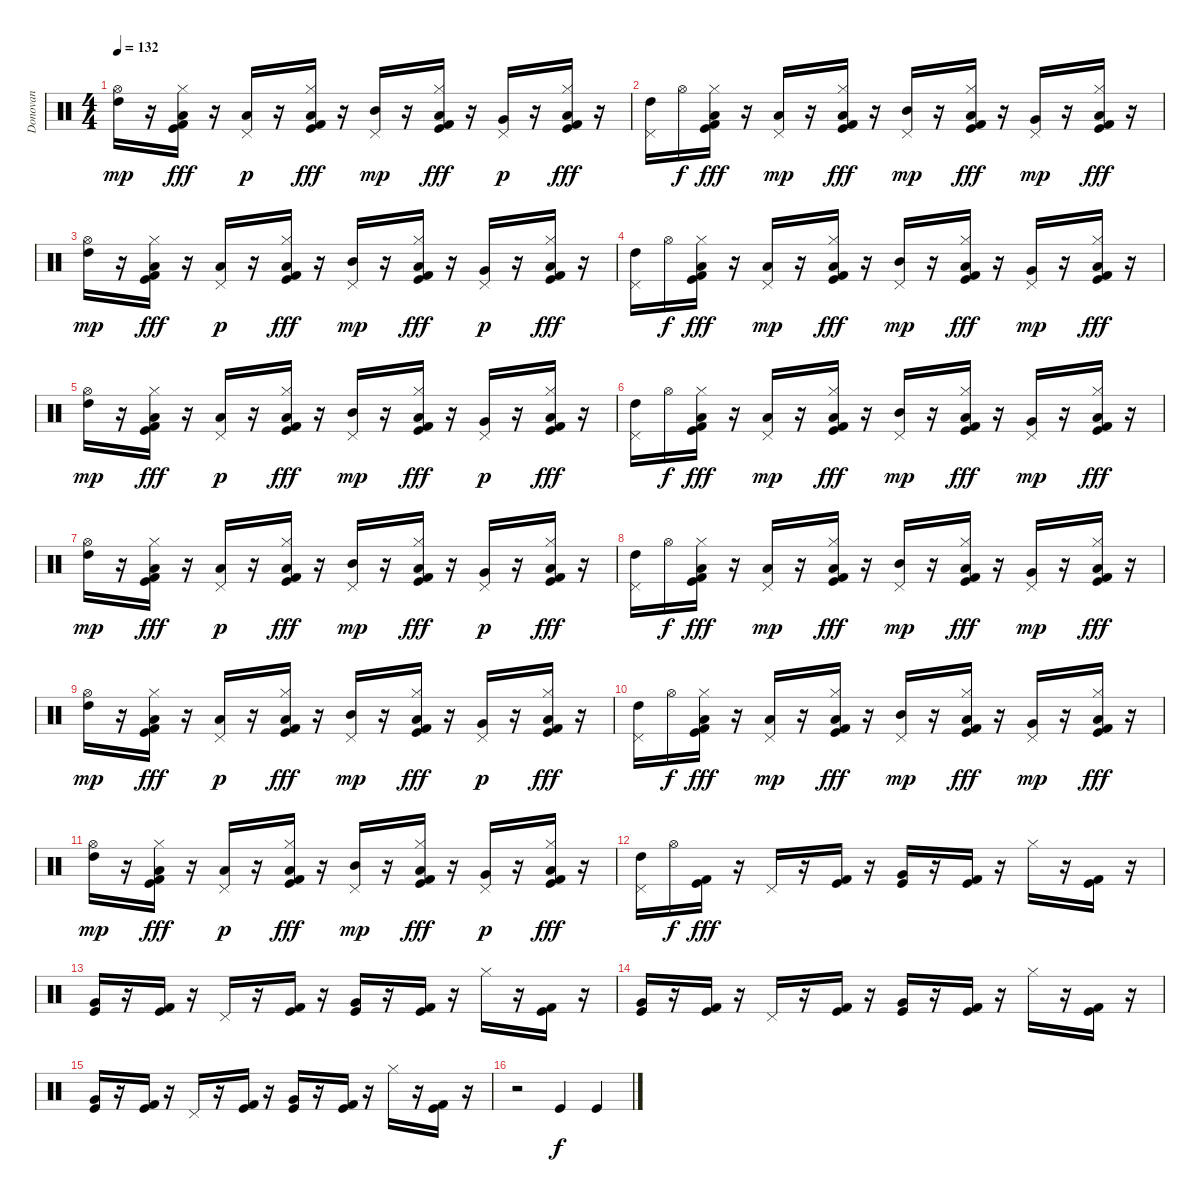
\track ("Donovan" "Donovan") {instrument percussion}
\staff {score}
\articulation defaults
\ts (4 4)
\tempo 132
\clef neutral
\ks c
("High Tom (hit)" "Hi-Hat (open)").16{dy mp} r.16 ("Low Floor Tom (hit)" "Hi-Hat (closed)" "Kick (hit) 2" "Kick (hit)").16{dy fff} r.16 ("Low Tom (hit)" "Pedal Hi-Hat (hit)").16{dy p} r.16 ("Low Floor Tom (hit)" "Hi-Hat (closed)" "Kick (hit) 2" "Kick (hit)").16{dy fff} r.16 ("Mid Tom (hit)" "Pedal Hi-Hat (hit)").16{dy mp} r.16 ("Low Floor Tom (hit)" "Hi-Hat (closed)" "Kick (hit) 2" "Kick (hit)").16{dy fff} r.16 ("Very Low Tom (hit)" "Pedal Hi-Hat (hit)").16{dy p} r.16 ("Low Floor Tom (hit)" "Hi-Hat (closed)" "Kick (hit) 2" "Kick (hit)").16{dy fff} r.16 |
("High Tom (hit)" "Pedal Hi-Hat (hit)").16 "Hi-Hat (open)".16{dy f} ("Low Floor Tom (hit)" "Hi-Hat (closed)" "Kick (hit)" "Kick (hit) 2").16{dy fff} r.16 ("Low Tom (hit)" "Pedal Hi-Hat (hit)").16{dy mp} r.16 ("Low Floor Tom (hit)" "Hi-Hat (closed)" "Kick (hit)" "Kick (hit) 2").16{dy fff} r.16 ("Mid Tom (hit)" "Pedal Hi-Hat (hit)").16{dy mp} r.16 ("Low Floor Tom (hit)" "Hi-Hat (closed)" "Kick (hit)" "Kick (hit) 2").16{dy fff} r.16 ("Very Low Tom (hit)" "Pedal Hi-Hat (hit)").16{dy mp} r.16 ("Low Floor Tom (hit)" "Hi-Hat (closed)" "Kick (hit)" "Kick (hit) 2").16{dy fff} r.16 |
("High Tom (hit)" "Hi-Hat (open)").16{dy mp} r.16 ("Low Floor Tom (hit)" "Hi-Hat (closed)" "Kick (hit) 2" "Kick (hit)").16{dy fff} r.16 ("Low Tom (hit)" "Pedal Hi-Hat (hit)").16{dy p} r.16 ("Low Floor Tom (hit)" "Hi-Hat (closed)" "Kick (hit) 2" "Kick (hit)").16{dy fff} r.16 ("Mid Tom (hit)" "Pedal Hi-Hat (hit)").16{dy mp} r.16 ("Low Floor Tom (hit)" "Hi-Hat (closed)" "Kick (hit) 2" "Kick (hit)").16{dy fff} r.16 ("Very Low Tom (hit)" "Pedal Hi-Hat (hit)").16{dy p} r.16 ("Low Floor Tom (hit)" "Hi-Hat (closed)" "Kick (hit) 2" "Kick (hit)").16{dy fff} r.16 |
("High Tom (hit)" "Pedal Hi-Hat (hit)").16 "Hi-Hat (open)".16{dy f} ("Low Floor Tom (hit)" "Hi-Hat (closed)" "Kick (hit)" "Kick (hit) 2").16{dy fff} r.16 ("Low Tom (hit)" "Pedal Hi-Hat (hit)").16{dy mp} r.16 ("Low Floor Tom (hit)" "Hi-Hat (closed)" "Kick (hit)" "Kick (hit) 2").16{dy fff} r.16 ("Mid Tom (hit)" "Pedal Hi-Hat (hit)").16{dy mp} r.16 ("Low Floor Tom (hit)" "Hi-Hat (closed)" "Kick (hit)" "Kick (hit) 2").16{dy fff} r.16 ("Very Low Tom (hit)" "Pedal Hi-Hat (hit)").16{dy mp} r.16 ("Low Floor Tom (hit)" "Hi-Hat (closed)" "Kick (hit)" "Kick (hit) 2").16{dy fff} r.16 |
("High Tom (hit)" "Hi-Hat (open)").16{dy mp} r.16 ("Low Floor Tom (hit)" "Hi-Hat (closed)" "Kick (hit) 2" "Kick (hit)").16{dy fff} r.16 ("Low Tom (hit)" "Pedal Hi-Hat (hit)").16{dy p} r.16 ("Low Floor Tom (hit)" "Hi-Hat (closed)" "Kick (hit) 2" "Kick (hit)").16{dy fff} r.16 ("Mid Tom (hit)" "Pedal Hi-Hat (hit)").16{dy mp} r.16 ("Low Floor Tom (hit)" "Hi-Hat (closed)" "Kick (hit) 2" "Kick (hit)").16{dy fff} r.16 ("Very Low Tom (hit)" "Pedal Hi-Hat (hit)").16{dy p} r.16 ("Low Floor Tom (hit)" "Hi-Hat (closed)" "Kick (hit) 2" "Kick (hit)").16{dy fff} r.16 |
("High Tom (hit)" "Pedal Hi-Hat (hit)").16 "Hi-Hat (open)".16{dy f} ("Low Floor Tom (hit)" "Hi-Hat (closed)" "Kick (hit)" "Kick (hit) 2").16{dy fff} r.16 ("Low Tom (hit)" "Pedal Hi-Hat (hit)").16{dy mp} r.16 ("Low Floor Tom (hit)" "Hi-Hat (closed)" "Kick (hit)" "Kick (hit) 2").16{dy fff} r.16 ("Mid Tom (hit)" "Pedal Hi-Hat (hit)").16{dy mp} r.16 ("Low Floor Tom (hit)" "Hi-Hat (closed)" "Kick (hit)" "Kick (hit) 2").16{dy fff} r.16 ("Very Low Tom (hit)" "Pedal Hi-Hat (hit)").16{dy mp} r.16 ("Low Floor Tom (hit)" "Hi-Hat (closed)" "Kick (hit)" "Kick (hit) 2").16{dy fff} r.16 |
("High Tom (hit)" "Hi-Hat (open)").16{dy mp} r.16 ("Low Floor Tom (hit)" "Hi-Hat (closed)" "Kick (hit) 2" "Kick (hit)").16{dy fff} r.16 ("Low Tom (hit)" "Pedal Hi-Hat (hit)").16{dy p} r.16 ("Low Floor Tom (hit)" "Hi-Hat (closed)" "Kick (hit) 2" "Kick (hit)").16{dy fff} r.16 ("Mid Tom (hit)" "Pedal Hi-Hat (hit)").16{dy mp} r.16 ("Low Floor Tom (hit)" "Hi-Hat (closed)" "Kick (hit) 2" "Kick (hit)").16{dy fff} r.16 ("Very Low Tom (hit)" "Pedal Hi-Hat (hit)").16{dy p} r.16 ("Low Floor Tom (hit)" "Hi-Hat (closed)" "Kick (hit) 2" "Kick (hit)").16{dy fff} r.16 |
("High Tom (hit)" "Pedal Hi-Hat (hit)").16 "Hi-Hat (open)".16{dy f} ("Low Floor Tom (hit)" "Hi-Hat (closed)" "Kick (hit)" "Kick (hit) 2").16{dy fff} r.16 ("Low Tom (hit)" "Pedal Hi-Hat (hit)").16{dy mp} r.16 ("Low Floor Tom (hit)" "Hi-Hat (closed)" "Kick (hit)" "Kick (hit) 2").16{dy fff} r.16 ("Mid Tom (hit)" "Pedal Hi-Hat (hit)").16{dy mp} r.16 ("Low Floor Tom (hit)" "Hi-Hat (closed)" "Kick (hit)" "Kick (hit) 2").16{dy fff} r.16 ("Very Low Tom (hit)" "Pedal Hi-Hat (hit)").16{dy mp} r.16 ("Low Floor Tom (hit)" "Hi-Hat (closed)" "Kick (hit)" "Kick (hit) 2").16{dy fff} r.16 |
("High Tom (hit)" "Hi-Hat (open)").16{dy mp} r.16 ("Low Floor Tom (hit)" "Hi-Hat (closed)" "Kick (hit) 2" "Kick (hit)").16{dy fff} r.16 ("Low Tom (hit)" "Pedal Hi-Hat (hit)").16{dy p} r.16 ("Low Floor Tom (hit)" "Hi-Hat (closed)" "Kick (hit) 2" "Kick (hit)").16{dy fff} r.16 ("Mid Tom (hit)" "Pedal Hi-Hat (hit)").16{dy mp} r.16 ("Low Floor Tom (hit)" "Hi-Hat (closed)" "Kick (hit) 2" "Kick (hit)").16{dy fff} r.16 ("Very Low Tom (hit)" "Pedal Hi-Hat (hit)").16{dy p} r.16 ("Low Floor Tom (hit)" "Hi-Hat (closed)" "Kick (hit) 2" "Kick (hit)").16{dy fff} r.16 |
("High Tom (hit)" "Pedal Hi-Hat (hit)").16 "Hi-Hat (open)".16{dy f} ("Low Floor Tom (hit)" "Hi-Hat (closed)" "Kick (hit)" "Kick (hit) 2").16{dy fff} r.16 ("Low Tom (hit)" "Pedal Hi-Hat (hit)").16{dy mp} r.16 ("Low Floor Tom (hit)" "Hi-Hat (closed)" "Kick (hit)" "Kick (hit) 2").16{dy fff} r.16 ("Mid Tom (hit)" "Pedal Hi-Hat (hit)").16{dy mp} r.16 ("Low Floor Tom (hit)" "Hi-Hat (closed)" "Kick (hit)" "Kick (hit) 2").16{dy fff} r.16 ("Very Low Tom (hit)" "Pedal Hi-Hat (hit)").16{dy mp} r.16 ("Low Floor Tom (hit)" "Hi-Hat (closed)" "Kick (hit)" "Kick (hit) 2").16{dy fff} r.16 |
("High Tom (hit)" "Hi-Hat (open)").16{dy mp} r.16 ("Low Floor Tom (hit)" "Hi-Hat (closed)" "Kick (hit) 2" "Kick (hit)").16{dy fff} r.16 ("Low Tom (hit)" "Pedal Hi-Hat (hit)").16{dy p} r.16 ("Low Floor Tom (hit)" "Hi-Hat (closed)" "Kick (hit) 2" "Kick (hit)").16{dy fff} r.16 ("Mid Tom (hit)" "Pedal Hi-Hat (hit)").16{dy mp} r.16 ("Low Floor Tom (hit)" "Hi-Hat (closed)" "Kick (hit) 2" "Kick (hit)").16{dy fff} r.16 ("Very Low Tom (hit)" "Pedal Hi-Hat (hit)").16{dy p} r.16 ("Low Floor Tom (hit)" "Hi-Hat (closed)" "Kick (hit) 2" "Kick (hit)").16{dy fff} r.16 |
("High Tom (hit)" "Pedal Hi-Hat (hit)").16 "Hi-Hat (open)".16{dy f} ("Kick (hit)" "Kick (hit) 2").16{dy fff} r.16 "Pedal Hi-Hat (hit)".16 r.16 ("Kick (hit)" "Kick (hit) 2").16 r.16 ("Very Low Tom (hit)" "Kick (hit)").16 r.16 ("Kick (hit)" "Kick (hit) 2").16 r.16 "Hi-Hat (closed)".16 r.16 ("Kick (hit)" "Kick (hit) 2").16 r.16 |
("Very Low Tom (hit)" "Kick (hit)").16 r.16 ("Kick (hit) 2" "Kick (hit)").16 r.16 "Pedal Hi-Hat (hit)".16 r.16 ("Kick (hit) 2" "Kick (hit)").16 r.16 ("Kick (hit)" "Very Low Tom (hit)").16 r.16 ("Kick (hit) 2" "Kick (hit)").16 r.16 "Hi-Hat (closed)".16 r.16 ("Kick (hit) 2" "Kick (hit)").16 r.16 |
("Kick (hit)" "Very Low Tom (hit)").16 r.16 ("Kick (hit)" "Kick (hit) 2").16 r.16 "Pedal Hi-Hat (hit)".16 r.16 ("Kick (hit)" "Kick (hit) 2").16 r.16 ("Very Low Tom (hit)" "Kick (hit)").16 r.16 ("Kick (hit)" "Kick (hit) 2").16 r.16 "Hi-Hat (closed)".16 r.16 ("Kick (hit)" "Kick (hit) 2").16 r.16 |
("Very Low Tom (hit)" "Kick (hit)").16 r.16 ("Kick (hit) 2" "Kick (hit)").16 r.16 "Pedal Hi-Hat (hit)".16 r.16 ("Kick (hit) 2" "Kick (hit)").16 r.16 ("Kick (hit)" "Very Low Tom (hit)").16 r.16 ("Kick (hit) 2" "Kick (hit)").16 r.16 "Hi-Hat (closed)".16 r.16 ("Kick (hit) 2" "Kick (hit)").16 r.16 |
r.2 "Kick (hit)".4{dy f} "Kick (hit)".4
